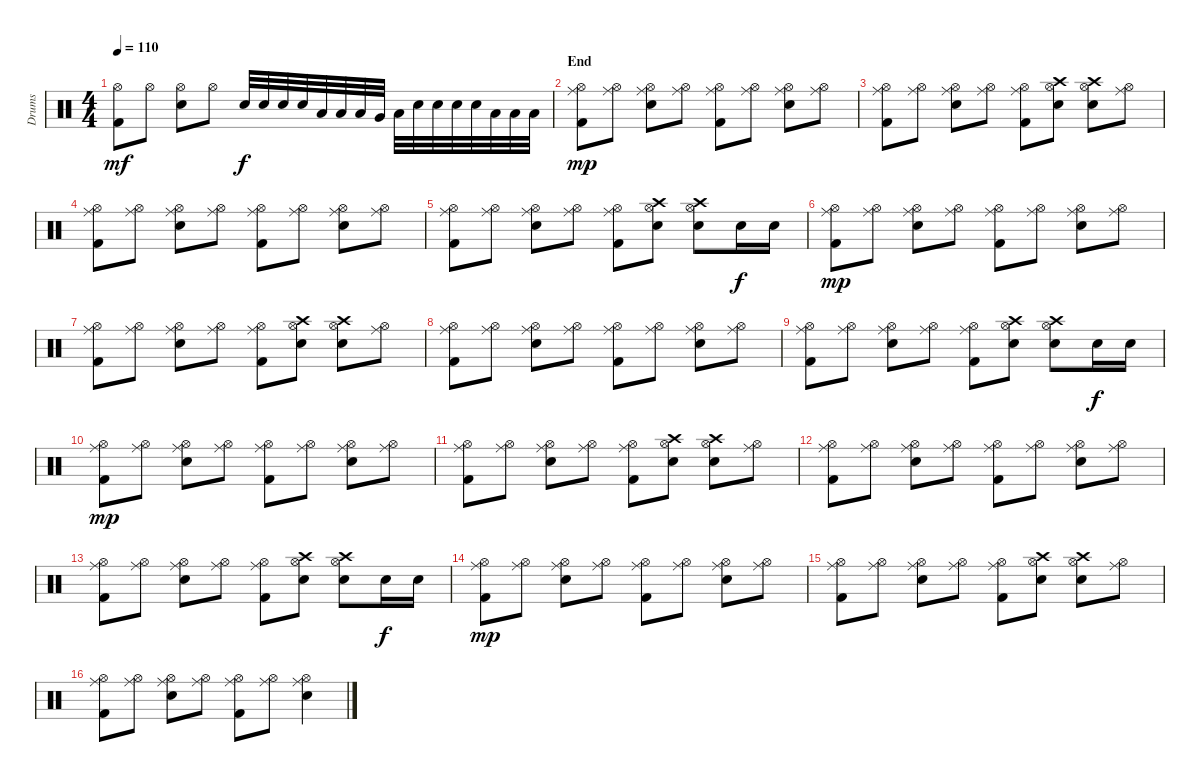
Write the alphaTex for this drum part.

\track ("Drums" "Drums") {instrument percussion}
\staff {score}
\articulation defaults
\ts (4 4)
\tempo 110
\clef neutral
\ks c
("Hi-Hat (open)" "Kick (hit) 2").8{dy mf} "Hi-Hat (open)".8 ("Hi-Hat (open)" "Snare (hit) 2").8 "Hi-Hat (open)".8 "Snare (hit) 2".32{dy f} "Snare (hit) 2".32 "Snare (hit) 2".32 "Snare (hit) 2".32 "Low Tom (hit)".32 "Low Tom (hit)".32 "Low Tom (hit)".32 "Very Low Tom (hit)".32 "Low Floor Tom (hit)".32 "Snare (hit) 2".32 "Snare (hit) 2".32 "Snare (hit) 2".32 "Snare (hit) 2".32 "Low Tom (hit)".32 "Low Tom (hit)".32 "Low Tom (hit)".32 |
\section ("" "End")
("Hi-Hat (open)" "Ride (middle)" "Kick (hit) 2").8{dy mp} ("Hi-Hat (open)" "Ride (middle)").8 ("Hi-Hat (open)" "Ride (middle)" "Snare (hit) 2").8 ("Hi-Hat (open)" "Ride (middle)").8 ("Hi-Hat (open)" "Ride (middle)" "Kick (hit) 2").8 ("Hi-Hat (open)" "Ride (middle)").8 ("Hi-Hat (open)" "Ride (middle)" "Snare (hit) 2").8 ("Hi-Hat (open)" "Ride (middle)").8 |
("Hi-Hat (open)" "Ride (middle)" "Kick (hit) 2").8 ("Hi-Hat (open)" "Ride (middle)").8 ("Hi-Hat (open)" "Ride (middle)" "Snare (hit) 2").8 ("Hi-Hat (open)" "Ride (middle)").8 ("Hi-Hat (open)" "Ride (middle)" "Kick (hit) 2").8 ("Hi-Hat (open)" "Snare (hit) 2" "Crash high (hit)").8 ("Hi-Hat (open)" "Snare (hit) 2" "Crash high (hit)").8 ("Hi-Hat (open)" "Ride (middle)").8 |
("Hi-Hat (open)" "Ride (middle)" "Kick (hit) 2").8 ("Hi-Hat (open)" "Ride (middle)").8 ("Hi-Hat (open)" "Ride (middle)" "Snare (hit) 2").8 ("Hi-Hat (open)" "Ride (middle)").8 ("Hi-Hat (open)" "Ride (middle)" "Kick (hit) 2").8 ("Hi-Hat (open)" "Ride (middle)").8 ("Hi-Hat (open)" "Ride (middle)" "Snare (hit) 2").8 ("Hi-Hat (open)" "Ride (middle)").8 |
("Hi-Hat (open)" "Ride (middle)" "Kick (hit) 2").8 ("Hi-Hat (open)" "Ride (middle)").8 ("Hi-Hat (open)" "Ride (middle)" "Snare (hit) 2").8 ("Hi-Hat (open)" "Ride (middle)").8 ("Hi-Hat (open)" "Ride (middle)" "Kick (hit) 2").8 ("Hi-Hat (open)" "Snare (hit) 2" "Crash high (hit)").8 ("Hi-Hat (open)" "Snare (hit) 2" "Crash high (hit)").8 "Snare (hit) 2".16{dy f} "Snare (hit) 2".16 |
("Hi-Hat (open)" "Ride (middle)" "Kick (hit) 2").8{dy mp} ("Hi-Hat (open)" "Ride (middle)").8 ("Hi-Hat (open)" "Ride (middle)" "Snare (hit) 2").8 ("Hi-Hat (open)" "Ride (middle)").8 ("Hi-Hat (open)" "Ride (middle)" "Kick (hit) 2").8 ("Hi-Hat (open)" "Ride (middle)").8 ("Hi-Hat (open)" "Ride (middle)" "Snare (hit) 2").8 ("Hi-Hat (open)" "Ride (middle)").8 |
("Hi-Hat (open)" "Ride (middle)" "Kick (hit) 2").8 ("Hi-Hat (open)" "Ride (middle)").8 ("Hi-Hat (open)" "Ride (middle)" "Snare (hit) 2").8 ("Hi-Hat (open)" "Ride (middle)").8 ("Hi-Hat (open)" "Ride (middle)" "Kick (hit) 2").8 ("Hi-Hat (open)" "Snare (hit) 2" "Crash high (hit)").8 ("Hi-Hat (open)" "Snare (hit) 2" "Crash high (hit)").8 ("Hi-Hat (open)" "Ride (middle)").8 |
("Hi-Hat (open)" "Ride (middle)" "Kick (hit) 2").8 ("Hi-Hat (open)" "Ride (middle)").8 ("Hi-Hat (open)" "Ride (middle)" "Snare (hit) 2").8 ("Hi-Hat (open)" "Ride (middle)").8 ("Hi-Hat (open)" "Ride (middle)" "Kick (hit) 2").8 ("Hi-Hat (open)" "Ride (middle)").8 ("Hi-Hat (open)" "Ride (middle)" "Snare (hit) 2").8 ("Hi-Hat (open)" "Ride (middle)").8 |
("Hi-Hat (open)" "Ride (middle)" "Kick (hit) 2").8 ("Hi-Hat (open)" "Ride (middle)").8 ("Hi-Hat (open)" "Ride (middle)" "Snare (hit) 2").8 ("Hi-Hat (open)" "Ride (middle)").8 ("Hi-Hat (open)" "Ride (middle)" "Kick (hit) 2").8 ("Hi-Hat (open)" "Snare (hit) 2" "Crash high (hit)").8 ("Hi-Hat (open)" "Snare (hit) 2" "Crash high (hit)").8 "Snare (hit) 2".16{dy f} "Snare (hit) 2".16 |
("Hi-Hat (open)" "Ride (middle)" "Kick (hit) 2").8{dy mp} ("Hi-Hat (open)" "Ride (middle)").8 ("Hi-Hat (open)" "Ride (middle)" "Snare (hit) 2").8 ("Hi-Hat (open)" "Ride (middle)").8 ("Hi-Hat (open)" "Ride (middle)" "Kick (hit) 2").8 ("Hi-Hat (open)" "Ride (middle)").8 ("Hi-Hat (open)" "Ride (middle)" "Snare (hit) 2").8 ("Hi-Hat (open)" "Ride (middle)").8 |
("Hi-Hat (open)" "Ride (middle)" "Kick (hit) 2").8 ("Hi-Hat (open)" "Ride (middle)").8 ("Hi-Hat (open)" "Ride (middle)" "Snare (hit) 2").8 ("Hi-Hat (open)" "Ride (middle)").8 ("Hi-Hat (open)" "Ride (middle)" "Kick (hit) 2").8 ("Hi-Hat (open)" "Snare (hit) 2" "Crash high (hit)").8 ("Hi-Hat (open)" "Snare (hit) 2" "Crash high (hit)").8 ("Hi-Hat (open)" "Ride (middle)").8 |
("Hi-Hat (open)" "Ride (middle)" "Kick (hit) 2").8 ("Hi-Hat (open)" "Ride (middle)").8 ("Hi-Hat (open)" "Ride (middle)" "Snare (hit) 2").8 ("Hi-Hat (open)" "Ride (middle)").8 ("Hi-Hat (open)" "Ride (middle)" "Kick (hit) 2").8 ("Hi-Hat (open)" "Ride (middle)").8 ("Hi-Hat (open)" "Ride (middle)" "Snare (hit) 2").8 ("Hi-Hat (open)" "Ride (middle)").8 |
("Hi-Hat (open)" "Ride (middle)" "Kick (hit) 2").8 ("Hi-Hat (open)" "Ride (middle)").8 ("Hi-Hat (open)" "Ride (middle)" "Snare (hit) 2").8 ("Hi-Hat (open)" "Ride (middle)").8 ("Hi-Hat (open)" "Ride (middle)" "Kick (hit) 2").8 ("Hi-Hat (open)" "Snare (hit) 2" "Crash high (hit)").8 ("Hi-Hat (open)" "Snare (hit) 2" "Crash high (hit)").8 "Snare (hit) 2".16{dy f} "Snare (hit) 2".16 |
("Hi-Hat (open)" "Ride (middle)" "Kick (hit) 2").8{dy mp} ("Hi-Hat (open)" "Ride (middle)").8 ("Hi-Hat (open)" "Ride (middle)" "Snare (hit) 2").8 ("Hi-Hat (open)" "Ride (middle)").8 ("Hi-Hat (open)" "Ride (middle)" "Kick (hit) 2").8 ("Hi-Hat (open)" "Ride (middle)").8 ("Hi-Hat (open)" "Ride (middle)" "Snare (hit) 2").8 ("Hi-Hat (open)" "Ride (middle)").8 |
("Hi-Hat (open)" "Ride (middle)" "Kick (hit) 2").8 ("Hi-Hat (open)" "Ride (middle)").8 ("Hi-Hat (open)" "Ride (middle)" "Snare (hit) 2").8 ("Hi-Hat (open)" "Ride (middle)").8 ("Hi-Hat (open)" "Ride (middle)" "Kick (hit) 2").8 ("Hi-Hat (open)" "Snare (hit) 2" "Crash high (hit)").8 ("Hi-Hat (open)" "Snare (hit) 2" "Crash high (hit)").8 ("Hi-Hat (open)" "Ride (middle)").8 |
("Hi-Hat (open)" "Ride (middle)" "Kick (hit) 2").8 ("Hi-Hat (open)" "Ride (middle)").8 ("Hi-Hat (open)" "Ride (middle)" "Snare (hit) 2").8 ("Hi-Hat (open)" "Ride (middle)").8 ("Hi-Hat (open)" "Ride (middle)" "Kick (hit) 2").8 ("Hi-Hat (open)" "Ride (middle)").8 ("Hi-Hat (open)" "Snare (hit) 2" "Ride (middle)").4
